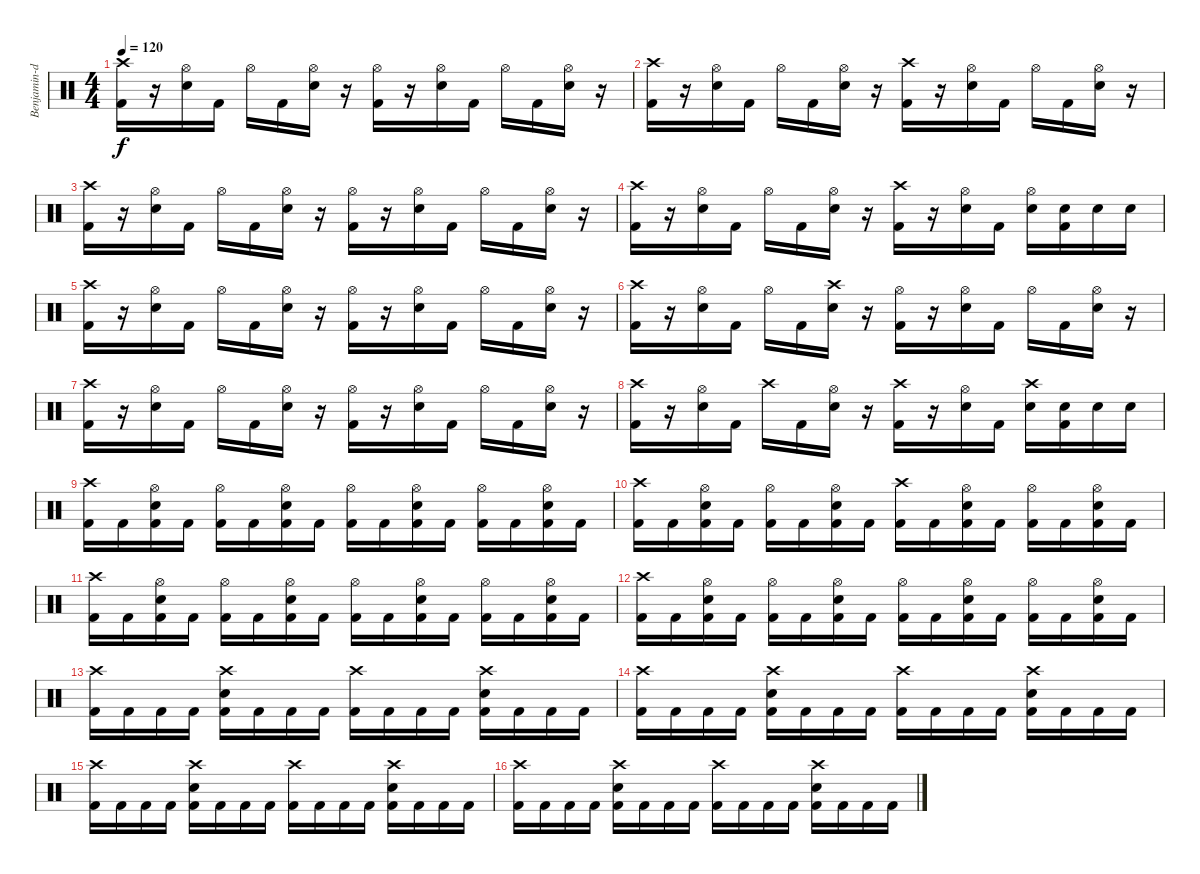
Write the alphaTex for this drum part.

\track ("Benjamin-drums" "Benjamin-d") {instrument percussion}
\staff {score}
\articulation defaults
\ts (4 4)
\tempo 120
\clef neutral
\ks c
("Crash high (hit)" "Kick (hit) 2").16{dy f} r.16 ("Hi-Hat (open)" "Snare (hit) 2").16 "Kick (hit) 2".16 "Hi-Hat (open)".16 "Kick (hit) 2".16 ("Hi-Hat (open)" "Snare (hit) 2").16 r.16 ("Hi-Hat (open)" "Kick (hit) 2").16 r.16 ("Hi-Hat (open)" "Snare (hit) 2").16 "Kick (hit) 2".16 "Hi-Hat (open)".16 "Kick (hit) 2".16 ("Hi-Hat (open)" "Snare (hit) 2").16 r.16 |
("Crash high (hit)" "Kick (hit) 2").16 r.16 ("Hi-Hat (open)" "Snare (hit) 2").16 "Kick (hit) 2".16 "Hi-Hat (open)".16 "Kick (hit) 2".16 ("Hi-Hat (open)" "Snare (hit) 2").16 r.16 ("Crash high (hit)" "Kick (hit) 2").16 r.16 ("Hi-Hat (open)" "Snare (hit) 2").16 "Kick (hit) 2".16 "Hi-Hat (open)".16 "Kick (hit) 2".16 ("Hi-Hat (open)" "Snare (hit) 2").16 r.16 |
("Crash high (hit)" "Kick (hit) 2").16 r.16 ("Hi-Hat (open)" "Snare (hit) 2").16 "Kick (hit) 2".16 "Hi-Hat (open)".16 "Kick (hit) 2".16 ("Hi-Hat (open)" "Snare (hit) 2").16 r.16 ("Hi-Hat (open)" "Kick (hit) 2").16 r.16 ("Hi-Hat (open)" "Snare (hit) 2").16 "Kick (hit) 2".16 "Hi-Hat (open)".16 "Kick (hit) 2".16 ("Hi-Hat (open)" "Snare (hit) 2").16 r.16 |
("Crash high (hit)" "Kick (hit) 2").16 r.16 ("Hi-Hat (open)" "Snare (hit) 2").16 "Kick (hit) 2".16 "Hi-Hat (open)".16 "Kick (hit) 2".16 ("Hi-Hat (open)" "Snare (hit) 2").16 r.16 ("Crash high (hit)" "Kick (hit) 2").16 r.16 ("Hi-Hat (open)" "Snare (hit) 2").16 "Kick (hit) 2".16 ("Hi-Hat (open)" "Snare (hit) 2").16 ("Snare (hit) 2" "Kick (hit) 2").16 "Snare (hit) 2".16 "Snare (hit) 2".16 |
("Crash high (hit)" "Kick (hit) 2").16 r.16 ("Hi-Hat (open)" "Snare (hit) 2").16 "Kick (hit) 2".16 "Hi-Hat (open)".16 "Kick (hit) 2".16 ("Hi-Hat (open)" "Snare (hit) 2").16 r.16 ("Hi-Hat (open)" "Kick (hit) 2").16 r.16 ("Hi-Hat (open)" "Snare (hit) 2").16 "Kick (hit) 2".16 "Hi-Hat (open)".16 "Kick (hit) 2".16 ("Hi-Hat (open)" "Snare (hit) 2").16 r.16 |
("Crash high (hit)" "Kick (hit) 2").16 r.16 ("Hi-Hat (open)" "Snare (hit) 2").16 "Kick (hit) 2".16 "Hi-Hat (open)".16 "Kick (hit) 2".16 ("Crash high (hit)" "Snare (hit) 2").16 r.16 ("Hi-Hat (open)" "Kick (hit) 2").16 r.16 ("Hi-Hat (open)" "Snare (hit) 2").16 "Kick (hit) 2".16 "Hi-Hat (open)".16 "Kick (hit) 2".16 ("Hi-Hat (open)" "Snare (hit) 2").16 r.16 |
("Crash high (hit)" "Kick (hit) 2").16 r.16 ("Hi-Hat (open)" "Snare (hit) 2").16 "Kick (hit) 2".16 "Hi-Hat (open)".16 "Kick (hit) 2".16 ("Hi-Hat (open)" "Snare (hit) 2").16 r.16 ("Hi-Hat (open)" "Kick (hit) 2").16 r.16 ("Hi-Hat (open)" "Snare (hit) 2").16 "Kick (hit) 2".16 "Hi-Hat (open)".16 "Kick (hit) 2".16 ("Hi-Hat (open)" "Snare (hit) 2").16 r.16 |
("Crash high (hit)" "Kick (hit) 2").16 r.16 ("Hi-Hat (open)" "Snare (hit) 2").16 "Kick (hit) 2".16 "Crash high (hit)".16 "Kick (hit) 2".16 ("Hi-Hat (open)" "Snare (hit) 2").16 r.16 ("Crash high (hit)" "Kick (hit) 2").16 r.16 ("Hi-Hat (open)" "Snare (hit) 2").16 "Kick (hit) 2".16 ("Crash high (hit)" "Snare (hit) 2").16 ("Snare (hit) 2" "Kick (hit) 2").16 "Snare (hit) 2".16 "Snare (hit) 2".16 |
("Crash high (hit)" "Kick (hit) 2").16 "Kick (hit) 2".16 ("Hi-Hat (open)" "Snare (hit) 2" "Kick (hit) 2").16 "Kick (hit) 2".16 ("Hi-Hat (open)" "Kick (hit) 2").16 "Kick (hit) 2".16 ("Hi-Hat (open)" "Snare (hit) 2" "Kick (hit) 2").16 "Kick (hit) 2".16 ("Hi-Hat (open)" "Kick (hit) 2").16 "Kick (hit) 2".16 ("Hi-Hat (open)" "Snare (hit) 2" "Kick (hit) 2").16 "Kick (hit) 2".16 ("Hi-Hat (open)" "Kick (hit) 2").16 "Kick (hit) 2".16 ("Hi-Hat (open)" "Snare (hit) 2" "Kick (hit) 2").16 "Kick (hit) 2".16 |
("Crash high (hit)" "Kick (hit) 2").16 "Kick (hit) 2".16 ("Hi-Hat (open)" "Snare (hit) 2" "Kick (hit) 2").16 "Kick (hit) 2".16 ("Hi-Hat (open)" "Kick (hit) 2").16 "Kick (hit) 2".16 ("Hi-Hat (open)" "Snare (hit) 2" "Kick (hit) 2").16 "Kick (hit) 2".16 ("Crash high (hit)" "Kick (hit) 2").16 "Kick (hit) 2".16 ("Hi-Hat (open)" "Snare (hit) 2" "Kick (hit) 2").16 "Kick (hit) 2".16 ("Hi-Hat (open)" "Kick (hit) 2").16 "Kick (hit) 2".16 ("Hi-Hat (open)" "Snare (hit) 2" "Kick (hit) 2").16 "Kick (hit) 2".16 |
("Crash high (hit)" "Kick (hit) 2").16 "Kick (hit) 2".16 ("Hi-Hat (open)" "Snare (hit) 2" "Kick (hit) 2").16 "Kick (hit) 2".16 ("Hi-Hat (open)" "Kick (hit) 2").16 "Kick (hit) 2".16 ("Hi-Hat (open)" "Snare (hit) 2" "Kick (hit) 2").16 "Kick (hit) 2".16 ("Hi-Hat (open)" "Kick (hit) 2").16 "Kick (hit) 2".16 ("Hi-Hat (open)" "Snare (hit) 2" "Kick (hit) 2").16 "Kick (hit) 2".16 ("Hi-Hat (open)" "Kick (hit) 2").16 "Kick (hit) 2".16 ("Hi-Hat (open)" "Snare (hit) 2" "Kick (hit) 2").16 "Kick (hit) 2".16 |
("Crash high (hit)" "Kick (hit) 2").16 "Kick (hit) 2".16 ("Hi-Hat (open)" "Snare (hit) 2" "Kick (hit) 2").16 "Kick (hit) 2".16 ("Hi-Hat (open)" "Kick (hit) 2").16 "Kick (hit) 2".16 ("Hi-Hat (open)" "Snare (hit) 2" "Kick (hit) 2").16 "Kick (hit) 2".16 ("Hi-Hat (open)" "Kick (hit) 2").16 "Kick (hit) 2".16 ("Hi-Hat (open)" "Snare (hit) 2" "Kick (hit) 2").16 "Kick (hit) 2".16 ("Hi-Hat (open)" "Kick (hit) 2").16 "Kick (hit) 2".16 ("Hi-Hat (open)" "Snare (hit) 2" "Kick (hit) 2").16 "Kick (hit) 2".16 |
("Crash high (hit)" "Kick (hit) 2").16 "Kick (hit) 2".16 "Kick (hit) 2".16 "Kick (hit) 2".16 ("Crash high (hit)" "Snare (hit) 2" "Kick (hit) 2").16 "Kick (hit) 2".16 "Kick (hit) 2".16 "Kick (hit) 2".16 ("Crash high (hit)" "Kick (hit) 2").16 "Kick (hit) 2".16 "Kick (hit) 2".16 "Kick (hit) 2".16 ("Crash high (hit)" "Snare (hit) 2" "Kick (hit) 2").16 "Kick (hit) 2".16 "Kick (hit) 2".16 "Kick (hit) 2".16 |
("Crash high (hit)" "Kick (hit) 2").16 "Kick (hit) 2".16 "Kick (hit) 2".16 "Kick (hit) 2".16 ("Crash high (hit)" "Snare (hit) 2" "Kick (hit) 2").16 "Kick (hit) 2".16 "Kick (hit) 2".16 "Kick (hit) 2".16 ("Crash high (hit)" "Kick (hit) 2").16 "Kick (hit) 2".16 "Kick (hit) 2".16 "Kick (hit) 2".16 ("Crash high (hit)" "Snare (hit) 2" "Kick (hit) 2").16 "Kick (hit) 2".16 "Kick (hit) 2".16 "Kick (hit) 2".16 |
("Crash high (hit)" "Kick (hit) 2").16 "Kick (hit) 2".16 "Kick (hit) 2".16 "Kick (hit) 2".16 ("Crash high (hit)" "Snare (hit) 2" "Kick (hit) 2").16 "Kick (hit) 2".16 "Kick (hit) 2".16 "Kick (hit) 2".16 ("Crash high (hit)" "Kick (hit) 2").16 "Kick (hit) 2".16 "Kick (hit) 2".16 "Kick (hit) 2".16 ("Crash high (hit)" "Snare (hit) 2" "Kick (hit) 2").16 "Kick (hit) 2".16 "Kick (hit) 2".16 "Kick (hit) 2".16 |
("Crash high (hit)" "Kick (hit) 2").16 "Kick (hit) 2".16 "Kick (hit) 2".16 "Kick (hit) 2".16 ("Crash high (hit)" "Snare (hit) 2" "Kick (hit) 2").16 "Kick (hit) 2".16 "Kick (hit) 2".16 "Kick (hit) 2".16 ("Crash high (hit)" "Kick (hit) 2").16 "Kick (hit) 2".16 "Kick (hit) 2".16 "Kick (hit) 2".16 ("Crash high (hit)" "Snare (hit) 2" "Kick (hit) 2").16 "Kick (hit) 2".16 "Kick (hit) 2".16 "Kick (hit) 2".16
